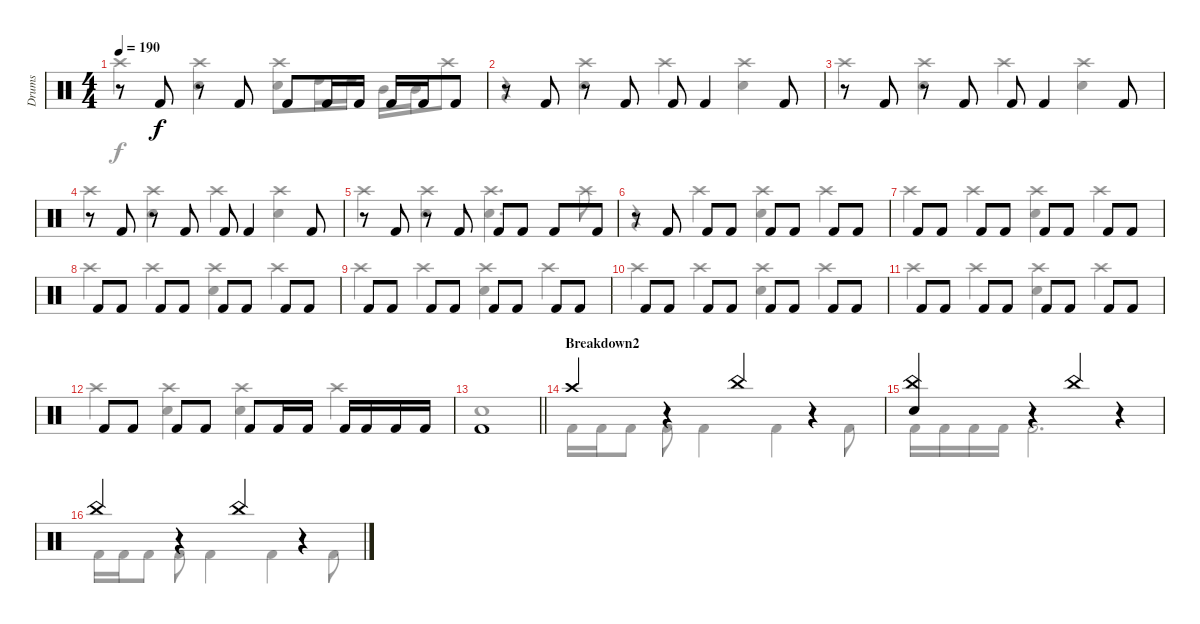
\track ("Drums" "Drums") {instrument percussion}
\staff {score}
\articulation defaults
\voice
\ts (4 4)
\tempo 190
\clef neutral
\ks c
r.8{dy f} "Kick (hit) 2".8 r.8 "Kick (hit) 2".8 "Kick (hit) 2".8 "Kick (hit) 2".16 "Kick (hit) 2".16 "Kick (hit) 2".16 "Kick (hit) 2".16 "Kick (hit) 2".8 |
r.8 "Kick (hit) 2".8 r.8 "Kick (hit) 2".8 "Kick (hit) 2".8 "Kick (hit) 2".4 "Kick (hit) 2".8 |
r.8 "Kick (hit) 2".8 r.8 "Kick (hit) 2".8 "Kick (hit) 2".8 "Kick (hit) 2".4 "Kick (hit) 2".8 |
r.8 "Kick (hit) 2".8 r.8 "Kick (hit) 2".8 "Kick (hit) 2".8 "Kick (hit) 2".4 "Kick (hit) 2".8 |
r.8 "Kick (hit) 2".8 r.8 "Kick (hit) 2".8 "Kick (hit) 2".8 "Kick (hit) 2".8 "Kick (hit) 2".8 "Kick (hit) 2".8 |
r.8 "Kick (hit) 2".8 "Kick (hit) 2".8 "Kick (hit) 2".8 "Kick (hit) 2".8 "Kick (hit) 2".8 "Kick (hit) 2".8 "Kick (hit) 2".8 |
"Kick (hit) 2".8 "Kick (hit) 2".8 "Kick (hit) 2".8 "Kick (hit) 2".8 "Kick (hit) 2".8 "Kick (hit) 2".8 "Kick (hit) 2".8 "Kick (hit) 2".8 |
"Kick (hit) 2".8 "Kick (hit) 2".8 "Kick (hit) 2".8 "Kick (hit) 2".8 "Kick (hit) 2".8 "Kick (hit) 2".8 "Kick (hit) 2".8 "Kick (hit) 2".8 |
"Kick (hit) 2".8 "Kick (hit) 2".8 "Kick (hit) 2".8 "Kick (hit) 2".8 "Kick (hit) 2".8 "Kick (hit) 2".8 "Kick (hit) 2".8 "Kick (hit) 2".8 |
"Kick (hit) 2".8 "Kick (hit) 2".8 "Kick (hit) 2".8 "Kick (hit) 2".8 "Kick (hit) 2".8 "Kick (hit) 2".8 "Kick (hit) 2".8 "Kick (hit) 2".8 |
"Kick (hit) 2".8 "Kick (hit) 2".8 "Kick (hit) 2".8 "Kick (hit) 2".8 "Kick (hit) 2".8 "Kick (hit) 2".8 "Kick (hit) 2".8 "Kick (hit) 2".8 |
"Kick (hit) 2".8 "Kick (hit) 2".8 "Kick (hit) 2".8 "Kick (hit) 2".8 "Kick (hit) 2".8 "Kick (hit) 2".16 "Kick (hit) 2".16 "Kick (hit) 2".16 "Kick (hit) 2".16 "Kick (hit) 2".16 "Kick (hit) 2".16 |
\barLineRight lightlight "Kick (hit) 2".1
|
\section ("" "Breakdown2")
"Crash high (hit)".4 r.4 "China (hit)".4 r.4 |
("Electric Snare (hit)" "China (hit)").4 r.4 "China (hit)".4 r.4 |
"China (hit)".4 r.4 "China (hit)".4 r.4
\voice
\clef neutral
\ottava regular
\simile none
\ks c "Crash high (hit)".4{dy f}
("Electric Snare (hit)" "Crash high (hit)").4 ("Electric Snare (hit)" "Crash high (hit)").8 "High Tom (hit)".16 "High Tom (hit)".16 "Mid Tom (hit)".16 "Mid Tom (hit)".16 "Crash high (hit)".8 |
r.4 ("Electric Snare (hit)" "Crash high (hit)").4 "Crash high (hit)".4 ("Electric Snare (hit)" "Crash high (hit)").4 |
"Crash high (hit)".4 ("Electric Snare (hit)" "Crash high (hit)").4 "Crash high (hit)".4 ("Electric Snare (hit)" "Crash high (hit)").4 |
"Crash high (hit)".4 ("Electric Snare (hit)" "Crash high (hit)").4 "Crash high (hit)".4 ("Electric Snare (hit)" "Crash high (hit)").4 |
"Crash high (hit)".4 ("Electric Snare (hit)" "Crash high (hit)").4 ("Electric Snare (hit)" "Crash high (hit)").4{d} "Crash high (hit)".8 |
r.4 "Crash high (hit)".4 ("Electric Snare (hit)" "Crash high (hit)").4 "Crash high (hit)".4 |
"Crash high (hit)".4 "Crash high (hit)".4 ("Electric Snare (hit)" "Crash high (hit)").4 "Crash high (hit)".4 |
"Crash high (hit)".4 "Crash high (hit)".4 ("Electric Snare (hit)" "Crash high (hit)").4 "Crash high (hit)".4 |
"Crash high (hit)".4 "Crash high (hit)".4 ("Electric Snare (hit)" "Crash high (hit)").4 "Crash high (hit)".4 |
"Crash high (hit)".4 "Crash high (hit)".4 ("Electric Snare (hit)" "Crash high (hit)").4 "Crash high (hit)".4 |
"Crash high (hit)".4 "Crash high (hit)".4 ("Electric Snare (hit)" "Crash high (hit)").4 "Crash high (hit)".4 |
"Crash high (hit)".4 ("Electric Snare (hit)" "Crash high (hit)").4 ("Electric Snare (hit)" "Crash high (hit)").4 "Crash high (hit)".4 |
\barLineRight lightlight "Electric Snare (hit)".1
|
"Kick (hit) 2".16 "Kick (hit) 2".16 "Kick (hit) 2".8 "Kick (hit) 2".8 "Kick (hit) 2".4 "Kick (hit) 2".4 "Kick (hit) 2".8 |
"Kick (hit) 2".16 "Kick (hit) 2".16 "Kick (hit) 2".16 "Kick (hit) 2".16 "Kick (hit) 2".2{d} |
"Kick (hit) 2".16 "Kick (hit) 2".16 "Kick (hit) 2".8 "Kick (hit) 2".8 "Kick (hit) 2".4 "Kick (hit) 2".4 "Kick (hit) 2".8
